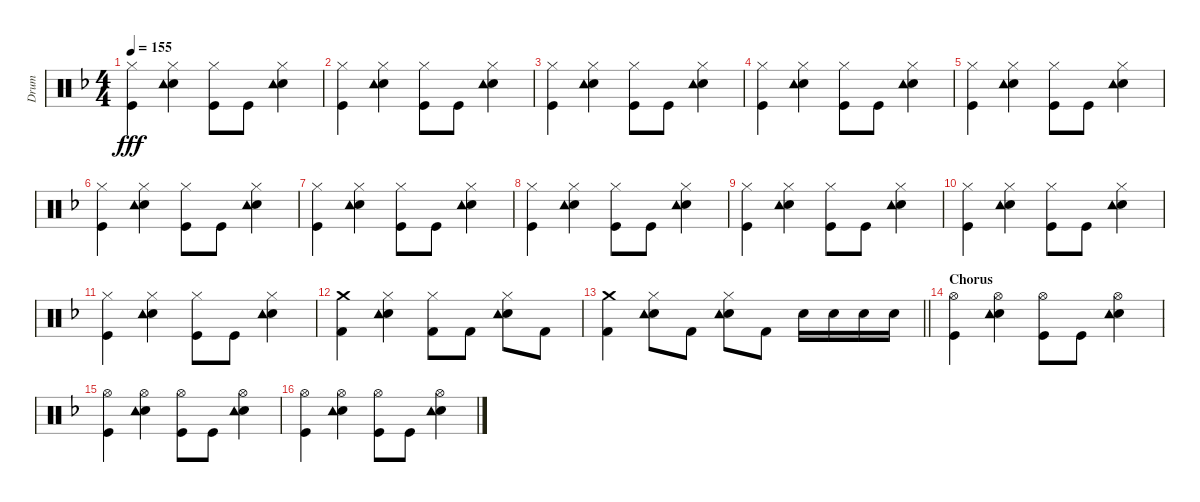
\track ("Drum" "Drum") {instrument percussion}
\staff {score}
\articulation defaults
\ts (4 4)
\tempo 155
\clef neutral
\ks f
("Hi-Hat (closed)" "Kick (hit)").4{dy fff} ("Hi-Hat (closed)" "Electric Snare (hit)" "Tambourine (hit)").4 ("Hi-Hat (closed)" "Kick (hit)").8 "Kick (hit)".8 ("Hi-Hat (closed)" "Electric Snare (hit)" "Tambourine (hit)").4 |
("Hi-Hat (closed)" "Kick (hit)").4 ("Hi-Hat (closed)" "Electric Snare (hit)" "Tambourine (hit)").4 ("Hi-Hat (closed)" "Kick (hit)").8 "Kick (hit)".8 ("Hi-Hat (closed)" "Electric Snare (hit)" "Tambourine (hit)").4 |
("Hi-Hat (closed)" "Kick (hit)").4 ("Hi-Hat (closed)" "Electric Snare (hit)" "Tambourine (hit)").4 ("Hi-Hat (closed)" "Kick (hit)").8 "Kick (hit)".8 ("Hi-Hat (closed)" "Electric Snare (hit)" "Tambourine (hit)").4 |
("Hi-Hat (closed)" "Kick (hit)").4 ("Hi-Hat (closed)" "Electric Snare (hit)" "Tambourine (hit)").4 ("Hi-Hat (closed)" "Kick (hit)").8 "Kick (hit)".8 ("Hi-Hat (closed)" "Electric Snare (hit)" "Tambourine (hit)").4 |
("Hi-Hat (closed)" "Kick (hit)").4 ("Hi-Hat (closed)" "Electric Snare (hit)" "Tambourine (hit)").4 ("Hi-Hat (closed)" "Kick (hit)").8 "Kick (hit)".8 ("Hi-Hat (closed)" "Electric Snare (hit)" "Tambourine (hit)").4 |
("Hi-Hat (closed)" "Kick (hit)").4 ("Hi-Hat (closed)" "Electric Snare (hit)" "Tambourine (hit)").4 ("Hi-Hat (closed)" "Kick (hit)").8 "Kick (hit)".8 ("Hi-Hat (closed)" "Electric Snare (hit)" "Tambourine (hit)").4 |
("Hi-Hat (closed)" "Kick (hit)").4 ("Hi-Hat (closed)" "Electric Snare (hit)" "Tambourine (hit)").4 ("Hi-Hat (closed)" "Kick (hit)").8 "Kick (hit)".8 ("Hi-Hat (closed)" "Electric Snare (hit)" "Tambourine (hit)").4 |
("Hi-Hat (closed)" "Kick (hit)").4 ("Hi-Hat (closed)" "Electric Snare (hit)" "Tambourine (hit)").4 ("Hi-Hat (closed)" "Kick (hit)").8 "Kick (hit)".8 ("Hi-Hat (closed)" "Electric Snare (hit)" "Tambourine (hit)").4 |
("Hi-Hat (closed)" "Kick (hit)").4 ("Hi-Hat (closed)" "Electric Snare (hit)" "Tambourine (hit)").4 ("Hi-Hat (closed)" "Kick (hit)").8 "Kick (hit)".8 ("Hi-Hat (closed)" "Electric Snare (hit)" "Tambourine (hit)").4 |
("Hi-Hat (closed)" "Kick (hit)").4 ("Hi-Hat (closed)" "Electric Snare (hit)" "Tambourine (hit)").4 ("Hi-Hat (closed)" "Kick (hit)").8 "Kick (hit)".8 ("Hi-Hat (closed)" "Electric Snare (hit)" "Tambourine (hit)").4 |
("Hi-Hat (closed)" "Kick (hit)").4 ("Hi-Hat (closed)" "Electric Snare (hit)" "Tambourine (hit)").4 ("Hi-Hat (closed)" "Kick (hit)").8 "Kick (hit)".8 ("Hi-Hat (closed)" "Electric Snare (hit)" "Tambourine (hit)").4 |
("Crash medium (hit)" "Kick (hit) 2").4 ("Hi-Hat (closed)" "Electric Snare (hit)" "Tambourine (hit)").4 ("Hi-Hat (closed)" "Kick (hit) 2").8 "Kick (hit) 2".8 ("Hi-Hat (closed)" "Electric Snare (hit)" "Tambourine (hit)").8 "Kick (hit) 2".8 |
\barLineRight lightlight
("Crash medium (hit)" "Kick (hit) 2").4 ("Hi-Hat (closed)" "Electric Snare (hit)" "Tambourine (hit)").8 "Kick (hit) 2".8 ("Hi-Hat (closed)" "Electric Snare (hit)" "Tambourine (hit)").8 "Kick (hit) 2".8 "Electric Snare (hit)".16 "Electric Snare (hit)".16 "Electric Snare (hit)".16 "Electric Snare (hit)".16 |
\section ("" "Chorus")
("Hi-Hat (open)" "Kick (hit)").4 ("Hi-Hat (open)" "Electric Snare (hit)" "Tambourine (hit)").4 ("Hi-Hat (open)" "Kick (hit)").8 "Kick (hit)".8 ("Hi-Hat (open)" "Electric Snare (hit)" "Tambourine (hit)").4 |
("Hi-Hat (open)" "Kick (hit)").4 ("Hi-Hat (open)" "Electric Snare (hit)" "Tambourine (hit)").4 ("Hi-Hat (open)" "Kick (hit)").8 "Kick (hit)".8 ("Hi-Hat (open)" "Electric Snare (hit)" "Tambourine (hit)").4 |
("Hi-Hat (open)" "Kick (hit)").4 ("Hi-Hat (open)" "Electric Snare (hit)" "Tambourine (hit)").4 ("Hi-Hat (open)" "Kick (hit)").8 "Kick (hit)".8 ("Hi-Hat (open)" "Electric Snare (hit)" "Tambourine (hit)").4
